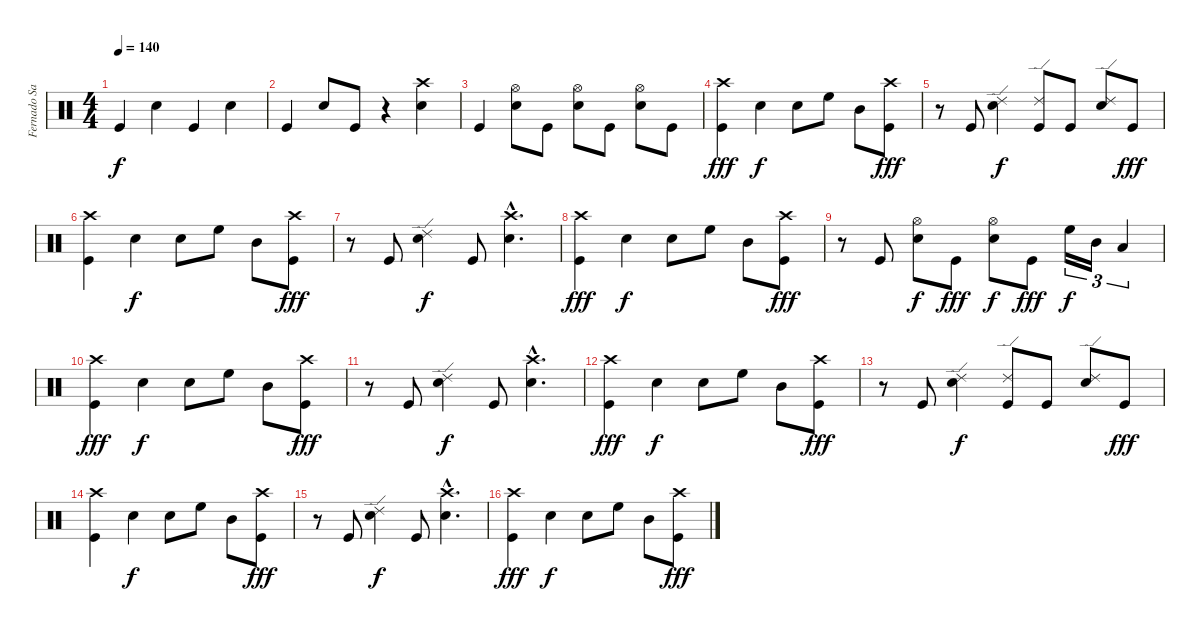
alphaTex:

\track ("Fernado Sanchez" "Fernado Sa") {instrument percussion}
\staff {score}
\articulation defaults
\ts (4 4)
\tempo 140
\clef neutral
\ks c "Kick (hit)".4{dy f} "Electric Snare (hit)".4 "Kick (hit)".4 "Electric Snare (hit)".4
|
"Kick (hit)".4 "Electric Snare (hit)".8 "Kick (hit)".8 r.4 ("Crash high (hit)" "Electric Snare (hit)").4 |
"Kick (hit)".4 ("Hi-Hat (open)" "Electric Snare (hit)").8 "Kick (hit)".8 ("Hi-Hat (open)" "Electric Snare (hit)").8 "Kick (hit)".8 ("Hi-Hat (open)" "Electric Snare (hit)").8 "Kick (hit)".8 |
("Crash high (hit)" "Kick (hit)").4{dy fff} "Electric Snare (hit)".4{dy f} "Electric Snare (hit)".8 "High Floor Tom (hit)".8 "Mid Tom (hit)".8 ("Crash high (hit)" "Kick (hit)").8{dy fff} |
r.8 "Kick (hit)".8 ("Ride (edge) 2" "Electric Snare (hit)").4{dy f} ("Ride (edge) 2" "Kick (hit)").8 "Kick (hit)".8 ("Ride (edge) 2" "Electric Snare (hit)").8 "Kick (hit)".8{dy fff} |
("Crash high (hit)" "Kick (hit)").4 "Electric Snare (hit)".4{dy f} "Electric Snare (hit)".8 "High Floor Tom (hit)".8 "Mid Tom (hit)".8 ("Crash high (hit)" "Kick (hit)").8{dy fff} |
r.8 "Kick (hit)".8 ("Ride (edge) 2" "Electric Snare (hit)").4{dy f} "Kick (hit)".8 ("Crash high (hit)"{hac} "Electric Snare (hit)"{hac}).4{d} |
("Crash high (hit)" "Kick (hit)").4{dy fff} "Electric Snare (hit)".4{dy f} "Electric Snare (hit)".8 "High Floor Tom (hit)".8 "Mid Tom (hit)".8 ("Crash high (hit)" "Kick (hit)").8{dy fff} |
r.8 "Kick (hit)".8 ("Hi-Hat (open)" "Electric Snare (hit)").8{dy f} "Kick (hit)".8{dy fff} ("Hi-Hat (open)" "Electric Snare (hit)").8{dy f} "Kick (hit)".8{dy fff} "High Floor Tom (hit)".16{tu (3 2) dy f} "Mid Tom (hit)".16{tu (3 2)} "Low Tom (hit)".4{tu (3 2)} |
("Crash high (hit)" "Kick (hit)").4{dy fff} "Electric Snare (hit)".4{dy f} "Electric Snare (hit)".8 "High Floor Tom (hit)".8 "Mid Tom (hit)".8 ("Crash high (hit)" "Kick (hit)").8{dy fff} |
r.8 "Kick (hit)".8 ("Ride (edge) 2" "Electric Snare (hit)").4{dy f} "Kick (hit)".8 ("Crash high (hit)"{hac} "Electric Snare (hit)"{hac}).4{d} |
("Crash high (hit)" "Kick (hit)").4{dy fff} "Electric Snare (hit)".4{dy f} "Electric Snare (hit)".8 "High Floor Tom (hit)".8 "Mid Tom (hit)".8 ("Crash high (hit)" "Kick (hit)").8{dy fff} |
r.8 "Kick (hit)".8 ("Ride (edge) 2" "Electric Snare (hit)").4{dy f} ("Ride (edge) 2" "Kick (hit)").8 "Kick (hit)".8 ("Ride (edge) 2" "Electric Snare (hit)").8 "Kick (hit)".8{dy fff} |
("Crash high (hit)" "Kick (hit)").4 "Electric Snare (hit)".4{dy f} "Electric Snare (hit)".8 "High Floor Tom (hit)".8 "Mid Tom (hit)".8 ("Crash high (hit)" "Kick (hit)").8{dy fff} |
r.8 "Kick (hit)".8 ("Ride (edge) 2" "Electric Snare (hit)").4{dy f} "Kick (hit)".8 ("Crash high (hit)"{hac} "Electric Snare (hit)"{hac}).4{d} |
("Crash high (hit)" "Kick (hit)").4{dy fff} "Electric Snare (hit)".4{dy f} "Electric Snare (hit)".8 "High Floor Tom (hit)".8 "Mid Tom (hit)".8 ("Crash high (hit)" "Kick (hit)").8{dy fff}
